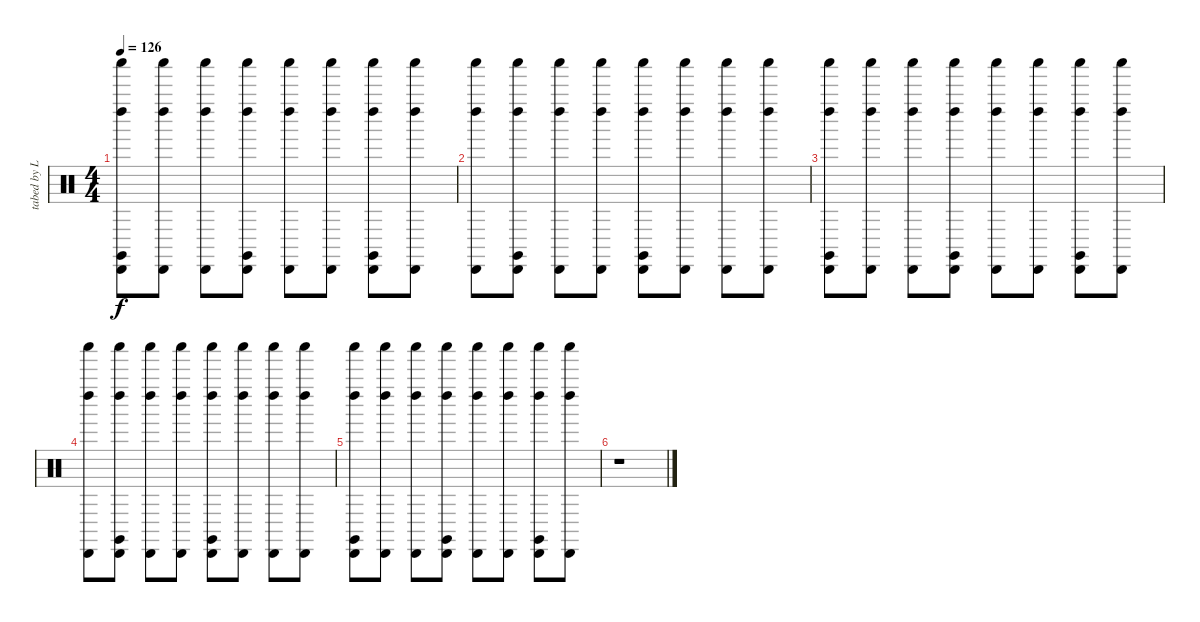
\track ("tabed by Leonid" "tabed by L") {instrument percussion}
\staff {score}
\articulation defaults
\ts (4 4)
\tempo 126
\clef neutral
\ks c
("Cabasa (hit)" "Left Maraca (hit)" "Shaker (hit)" "Claves (hit)").8{dy f} ("Cabasa (hit)" "Left Maraca (hit)" "Shaker (hit)").8 ("Cabasa (hit)" "Left Maraca (hit)" "Shaker (hit)").8 ("Cabasa (hit)" "Left Maraca (hit)" "Shaker (hit)" "Claves (hit)").8 ("Cabasa (hit)" "Left Maraca (hit)" "Shaker (hit)").8 ("Cabasa (hit)" "Left Maraca (hit)" "Shaker (hit)").8 ("Cabasa (hit)" "Left Maraca (hit)" "Shaker (hit)" "Claves (hit)").8 ("Cabasa (hit)" "Left Maraca (hit)" "Shaker (hit)").8 |
("Left Maraca (hit)" "Cabasa (hit)" "Shaker (hit)").8 ("Left Maraca (hit)" "Cabasa (hit)" "Shaker (hit)" "Claves (hit)").8 ("Left Maraca (hit)" "Cabasa (hit)" "Shaker (hit)").8 ("Left Maraca (hit)" "Cabasa (hit)" "Shaker (hit)").8 ("Left Maraca (hit)" "Cabasa (hit)" "Shaker (hit)" "Claves (hit)").8 ("Left Maraca (hit)" "Cabasa (hit)" "Shaker (hit)").8 ("Left Maraca (hit)" "Cabasa (hit)" "Shaker (hit)").8 ("Left Maraca (hit)" "Cabasa (hit)" "Shaker (hit)").8 |
("Left Maraca (hit)" "Cabasa (hit)" "Shaker (hit)" "Claves (hit)").8 ("Left Maraca (hit)" "Cabasa (hit)" "Shaker (hit)").8 ("Left Maraca (hit)" "Cabasa (hit)" "Shaker (hit)").8 ("Left Maraca (hit)" "Cabasa (hit)" "Shaker (hit)" "Claves (hit)").8 ("Left Maraca (hit)" "Cabasa (hit)" "Shaker (hit)").8 ("Left Maraca (hit)" "Cabasa (hit)" "Shaker (hit)").8 ("Left Maraca (hit)" "Cabasa (hit)" "Shaker (hit)" "Claves (hit)").8 ("Left Maraca (hit)" "Cabasa (hit)" "Shaker (hit)").8 |
("Shaker (hit)" "Cabasa (hit)" "Left Maraca (hit)").8 ("Shaker (hit)" "Cabasa (hit)" "Left Maraca (hit)" "Claves (hit)").8 ("Shaker (hit)" "Cabasa (hit)" "Left Maraca (hit)").8 ("Shaker (hit)" "Cabasa (hit)" "Left Maraca (hit)").8 ("Shaker (hit)" "Cabasa (hit)" "Left Maraca (hit)" "Claves (hit)").8 ("Shaker (hit)" "Cabasa (hit)" "Left Maraca (hit)").8 ("Shaker (hit)" "Cabasa (hit)" "Left Maraca (hit)").8 ("Shaker (hit)" "Cabasa (hit)" "Left Maraca (hit)").8 |
("Shaker (hit)" "Cabasa (hit)" "Left Maraca (hit)" "Claves (hit)").8 ("Shaker (hit)" "Cabasa (hit)" "Left Maraca (hit)").8 ("Shaker (hit)" "Cabasa (hit)" "Left Maraca (hit)").8 ("Shaker (hit)" "Cabasa (hit)" "Left Maraca (hit)" "Claves (hit)").8 ("Shaker (hit)" "Cabasa (hit)" "Left Maraca (hit)").8 ("Shaker (hit)" "Cabasa (hit)" "Left Maraca (hit)").8 ("Shaker (hit)" "Cabasa (hit)" "Left Maraca (hit)" "Claves (hit)").8 ("Shaker (hit)" "Cabasa (hit)" "Left Maraca (hit)").8 |
r.1
